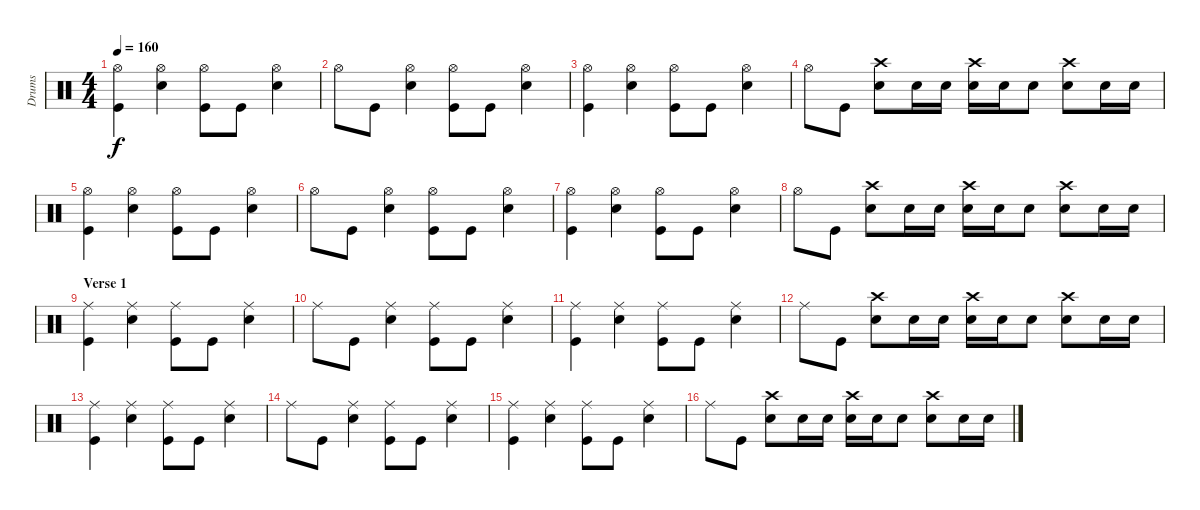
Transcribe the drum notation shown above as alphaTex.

\track ("Drums" "Drums") {instrument percussion}
\staff {score}
\articulation defaults
\ts (4 4)
\tempo 160
\clef neutral
\ks c
("Hi-Hat (open)" "Kick (hit)").4{dy f} ("Hi-Hat (open)" "Electric Snare (hit)").4 ("Hi-Hat (open)" "Kick (hit)").8 "Kick (hit)".8 ("Hi-Hat (open)" "Electric Snare (hit)").4 |
"Hi-Hat (open)".8 "Kick (hit)".8 ("Hi-Hat (open)" "Electric Snare (hit)").4 ("Hi-Hat (open)" "Kick (hit)").8 "Kick (hit)".8 ("Hi-Hat (open)" "Electric Snare (hit)").4 |
("Hi-Hat (open)" "Kick (hit)").4 ("Hi-Hat (open)" "Electric Snare (hit)").4 ("Hi-Hat (open)" "Kick (hit)").8 "Kick (hit)".8 ("Hi-Hat (open)" "Electric Snare (hit)").4 |
"Hi-Hat (open)".8 "Kick (hit)".8 ("Electric Snare (hit)" "Crash high (hit)").8 "Electric Snare (hit)".16 "Electric Snare (hit)".16 ("Electric Snare (hit)" "Crash high (hit)").16 "Electric Snare (hit)".16 "Electric Snare (hit)".8 ("Electric Snare (hit)" "Crash high (hit)").8 "Electric Snare (hit)".16 "Electric Snare (hit)".16 |
("Hi-Hat (open)" "Kick (hit)").4 ("Hi-Hat (open)" "Electric Snare (hit)").4 ("Hi-Hat (open)" "Kick (hit)").8 "Kick (hit)".8 ("Hi-Hat (open)" "Electric Snare (hit)").4 |
"Hi-Hat (open)".8 "Kick (hit)".8 ("Hi-Hat (open)" "Electric Snare (hit)").4 ("Hi-Hat (open)" "Kick (hit)").8 "Kick (hit)".8 ("Hi-Hat (open)" "Electric Snare (hit)").4 |
("Hi-Hat (open)" "Kick (hit)").4 ("Hi-Hat (open)" "Electric Snare (hit)").4 ("Hi-Hat (open)" "Kick (hit)").8 "Kick (hit)".8 ("Hi-Hat (open)" "Electric Snare (hit)").4 |
"Hi-Hat (open)".8 "Kick (hit)".8 ("Electric Snare (hit)" "Crash high (hit)").8 "Electric Snare (hit)".16 "Electric Snare (hit)".16 ("Electric Snare (hit)" "Crash high (hit)").16 "Electric Snare (hit)".16 "Electric Snare (hit)".8 ("Electric Snare (hit)" "Crash high (hit)").8 "Electric Snare (hit)".16 "Electric Snare (hit)".16 |
\section ("" "Verse 1")
("Ride (middle)" "Kick (hit)").4 ("Ride (middle)" "Electric Snare (hit)").4 ("Ride (middle)" "Kick (hit)").8 "Kick (hit)".8 ("Ride (middle)" "Electric Snare (hit)").4 |
"Ride (middle)".8 "Kick (hit)".8 ("Ride (middle)" "Electric Snare (hit)").4 ("Ride (middle)" "Kick (hit)").8 "Kick (hit)".8 ("Ride (middle)" "Electric Snare (hit)").4 |
("Ride (middle)" "Kick (hit)").4 ("Ride (middle)" "Electric Snare (hit)").4 ("Ride (middle)" "Kick (hit)").8 "Kick (hit)".8 ("Ride (middle)" "Electric Snare (hit)").4 |
"Ride (middle)".8 "Kick (hit)".8 ("Electric Snare (hit)" "Crash high (hit)").8 "Electric Snare (hit)".16 "Electric Snare (hit)".16 ("Electric Snare (hit)" "Crash high (hit)").16 "Electric Snare (hit)".16 "Electric Snare (hit)".8 ("Electric Snare (hit)" "Crash high (hit)").8 "Electric Snare (hit)".16 "Electric Snare (hit)".16 |
("Ride (middle)" "Kick (hit)").4 ("Ride (middle)" "Electric Snare (hit)").4 ("Ride (middle)" "Kick (hit)").8 "Kick (hit)".8 ("Ride (middle)" "Electric Snare (hit)").4 |
"Ride (middle)".8 "Kick (hit)".8 ("Ride (middle)" "Electric Snare (hit)").4 ("Ride (middle)" "Kick (hit)").8 "Kick (hit)".8 ("Ride (middle)" "Electric Snare (hit)").4 |
("Ride (middle)" "Kick (hit)").4 ("Ride (middle)" "Electric Snare (hit)").4 ("Ride (middle)" "Kick (hit)").8 "Kick (hit)".8 ("Ride (middle)" "Electric Snare (hit)").4 |
"Ride (middle)".8 "Kick (hit)".8 ("Electric Snare (hit)" "Crash high (hit)").8 "Electric Snare (hit)".16 "Electric Snare (hit)".16 ("Electric Snare (hit)" "Crash high (hit)").16 "Electric Snare (hit)".16 "Electric Snare (hit)".8 ("Electric Snare (hit)" "Crash high (hit)").8 "Electric Snare (hit)".16 "Electric Snare (hit)".16
